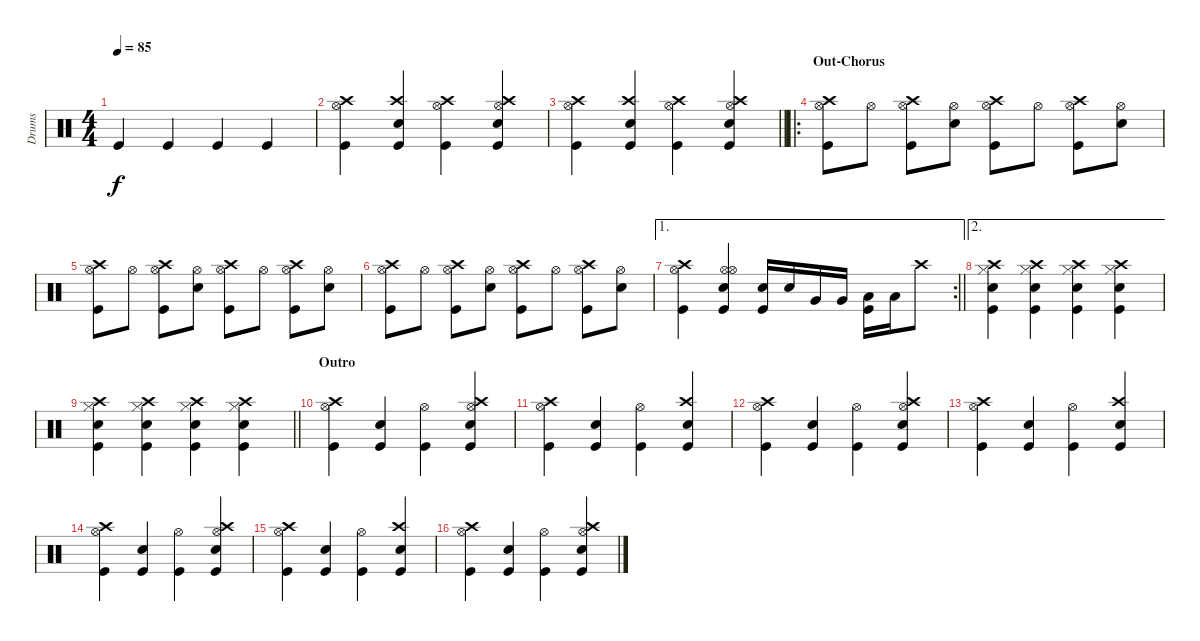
\track ("Drums" "Drums") {instrument percussion}
\staff {score}
\articulation defaults
\ts (4 4)
\tempo 85
\clef neutral
\ks c "Kick (hit)".4{dy f} "Kick (hit)".4 "Kick (hit)".4 "Kick (hit)".4
|
("Crash high (hit)" "Hi-Hat (open)" "Kick (hit)").4 ("Crash high (hit)" "Snare (hit) 2" "Kick (hit)").4 ("Crash high (hit)" "Hi-Hat (open)" "Kick (hit)").4 ("Crash high (hit)" "Hi-Hat (open)" "Snare (hit) 2" "Kick (hit)").4 |
\barLineRight lightlight
("Crash high (hit)" "Hi-Hat (open)" "Kick (hit)").4 ("Crash high (hit)" "Snare (hit) 2" "Kick (hit)").4 ("Crash high (hit)" "Hi-Hat (open)" "Kick (hit)").4 ("Crash high (hit)" "Hi-Hat (open)" "Snare (hit) 2" "Kick (hit)").4 |
\ro
\section ("" "Out-Chorus")
("Crash high (hit)" "Hi-Hat (open)" "Kick (hit)").8 "Hi-Hat (open)".8 ("Crash high (hit)" "Hi-Hat (open)" "Kick (hit)").8 ("Hi-Hat (open)" "Snare (hit) 2").8 ("Crash high (hit)" "Hi-Hat (open)" "Kick (hit)").8 "Hi-Hat (open)".8 ("Crash high (hit)" "Hi-Hat (open)" "Kick (hit)").8 ("Hi-Hat (open)" "Snare (hit) 2").8 |
("Crash high (hit)" "Hi-Hat (open)" "Kick (hit)").8 "Hi-Hat (open)".8 ("Crash high (hit)" "Hi-Hat (open)" "Kick (hit)").8 ("Hi-Hat (open)" "Snare (hit) 2").8 ("Crash high (hit)" "Hi-Hat (open)" "Kick (hit)").8 "Hi-Hat (open)".8 ("Crash high (hit)" "Hi-Hat (open)" "Kick (hit)").8 ("Hi-Hat (open)" "Snare (hit) 2").8 |
("Crash high (hit)" "Hi-Hat (open)" "Kick (hit)").8 "Hi-Hat (open)".8 ("Crash high (hit)" "Hi-Hat (open)" "Kick (hit)").8 ("Hi-Hat (open)" "Snare (hit) 2").8 ("Crash high (hit)" "Hi-Hat (open)" "Kick (hit)").8 "Hi-Hat (open)".8 ("Crash high (hit)" "Hi-Hat (open)" "Kick (hit)").8 ("Hi-Hat (open)" "Snare (hit) 2").8 |
\ae 1
\rc 2
\barLineRight lightlight
("Crash high (hit)" "Hi-Hat (open)" "Kick (hit)").4 ("Hi-Hat (open)" "Hi-Hat (open)" "Snare (hit) 2" "Kick (hit)").4 ("Snare (hit) 2" "Kick (hit)").16 "Snare (hit) 2".16 "Very Low Tom (hit)".16 "Very Low Tom (hit)".16 ("Low Tom (hit)" "Kick (hit)").16 "Low Tom (hit)".16 "Crash high (hit)".8 |
\ae 2
("Crash high (hit)" "Hi-Hat (closed)" "Kick (hit)" "Snare (hit) 2").4 ("Crash high (hit)" "Hi-Hat (closed)" "Kick (hit)" "Snare (hit) 2").4 ("Crash high (hit)" "Hi-Hat (closed)" "Kick (hit)" "Snare (hit) 2").4 ("Crash high (hit)" "Hi-Hat (closed)" "Kick (hit)" "Snare (hit) 2").4 |
\barLineRight lightlight
("Crash high (hit)" "Hi-Hat (closed)" "Kick (hit)" "Snare (hit) 2").4 ("Crash high (hit)" "Hi-Hat (closed)" "Kick (hit)" "Snare (hit) 2").4 ("Crash high (hit)" "Hi-Hat (closed)" "Kick (hit)" "Snare (hit) 2").4 ("Crash high (hit)" "Hi-Hat (closed)" "Kick (hit)" "Snare (hit) 2").4 |
\section ("" "Outro")
("Crash high (hit)" "Hi-Hat (open)" "Kick (hit)").4 ("Snare (hit) 2" "Kick (hit)").4 ("Hi-Hat (open)" "Kick (hit)").4 ("Crash high (hit)" "Hi-Hat (open)" "Snare (hit) 2" "Kick (hit)").4 |
("Crash high (hit)" "Hi-Hat (open)" "Kick (hit)").4 ("Snare (hit) 2" "Kick (hit)").4 ("Hi-Hat (open)" "Kick (hit)").4 ("Crash high (hit)" "Snare (hit) 2" "Kick (hit)").4 |
("Crash high (hit)" "Hi-Hat (open)" "Kick (hit)").4 ("Snare (hit) 2" "Kick (hit)").4 ("Hi-Hat (open)" "Kick (hit)").4 ("Crash high (hit)" "Hi-Hat (open)" "Snare (hit) 2" "Kick (hit)").4 |
("Crash high (hit)" "Hi-Hat (open)" "Kick (hit)").4 ("Snare (hit) 2" "Kick (hit)").4 ("Hi-Hat (open)" "Kick (hit)").4 ("Crash high (hit)" "Snare (hit) 2" "Kick (hit)").4 |
("Crash high (hit)" "Hi-Hat (open)" "Kick (hit)").4 ("Snare (hit) 2" "Kick (hit)").4 ("Hi-Hat (open)" "Kick (hit)").4 ("Crash high (hit)" "Hi-Hat (open)" "Snare (hit) 2" "Kick (hit)").4 |
("Crash high (hit)" "Hi-Hat (open)" "Kick (hit)").4 ("Snare (hit) 2" "Kick (hit)").4 ("Hi-Hat (open)" "Kick (hit)").4 ("Crash high (hit)" "Snare (hit) 2" "Kick (hit)").4 |
("Crash high (hit)" "Hi-Hat (open)" "Kick (hit)").4 ("Snare (hit) 2" "Kick (hit)").4 ("Hi-Hat (open)" "Kick (hit)").4 ("Crash high (hit)" "Hi-Hat (open)" "Snare (hit) 2" "Kick (hit)").4
